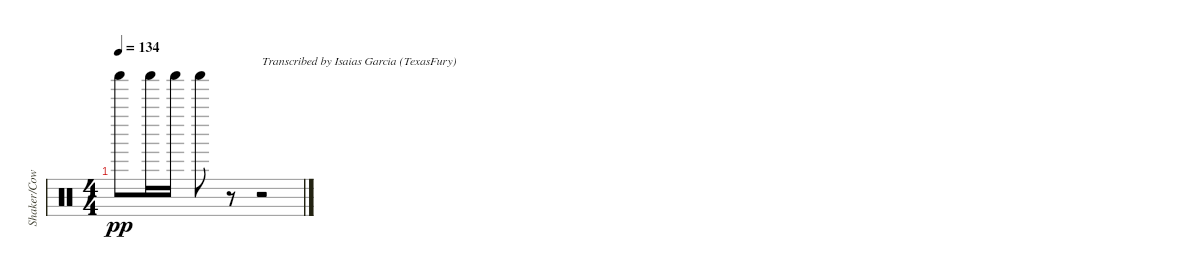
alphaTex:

\track ("Shaker/Cowbell" "Shaker/Cow") {instrument percussion}
\staff {score}
\articulation defaults
\ts (4 4)
\tempo 134
\clef neutral
\ks c "Shaker (hit)".8{dy pp} "Shaker (hit)".16 "Shaker (hit)".16 "Shaker (hit)".8
r.8 r.2{txt "Transcribed by Isaias Garcia (TexasFury)"}
